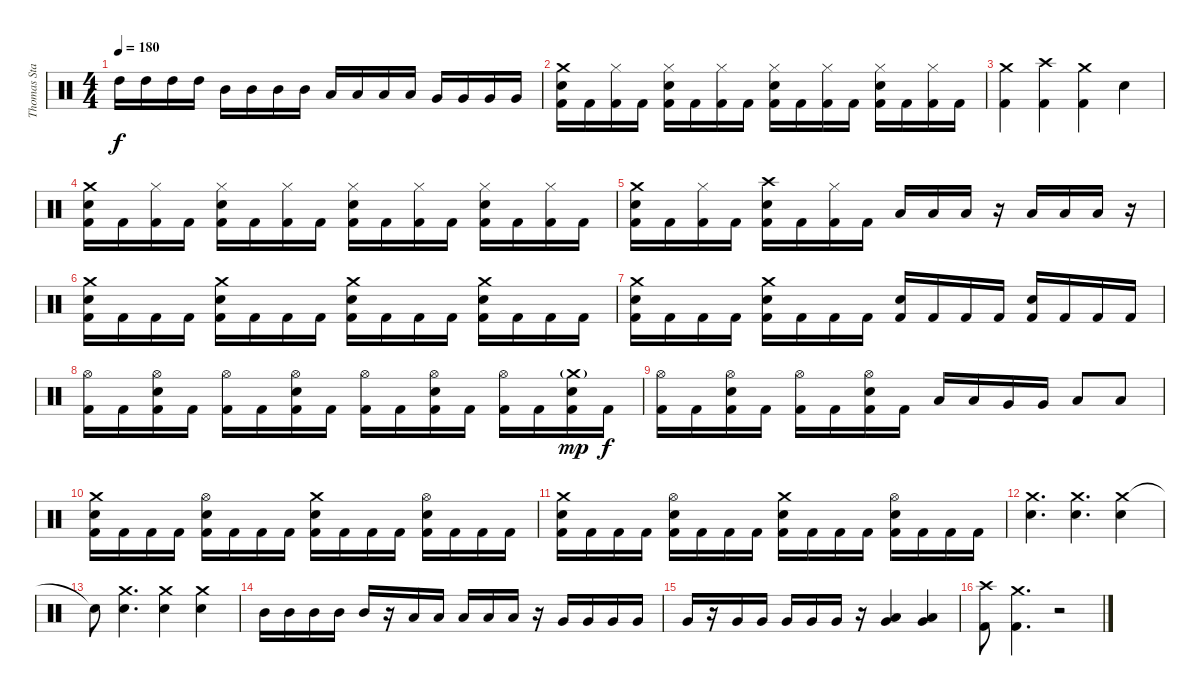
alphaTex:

\track ("Thomas Stauch" "Thomas Sta") {instrument percussion}
\staff {score}
\articulation defaults
\ts (4 4)
\tempo 180
\clef neutral
\ks c "High Tom (hit)".16{dy f} "High Tom (hit)".16 "High Tom (hit)".16 "High Tom (hit)".16 "Mid Tom (hit)".16 "Mid Tom (hit)".16 "Mid Tom (hit)".16 "Mid Tom (hit)".16 "Low Tom (hit)".16 "Low Tom (hit)".16 "Low Tom (hit)".16 "Low Tom (hit)".16 "Very Low Tom (hit)".16 "Very Low Tom (hit)".16 "Very Low Tom (hit)".16 "Very Low Tom (hit)".16
|
("Crash medium (hit)" "Electric Snare (hit)" "Kick (hit) 2").16 "Kick (hit) 2".16 ("Hi-Hat (closed)" "Kick (hit) 2").16 "Kick (hit) 2".16 ("Hi-Hat (closed)" "Electric Snare (hit)" "Kick (hit) 2").16 "Kick (hit) 2".16 ("Hi-Hat (closed)" "Kick (hit) 2").16 "Kick (hit) 2".16 ("Hi-Hat (closed)" "Electric Snare (hit)" "Kick (hit) 2").16 "Kick (hit) 2".16 ("Hi-Hat (closed)" "Kick (hit) 2").16 "Kick (hit) 2".16 ("Hi-Hat (closed)" "Electric Snare (hit)" "Kick (hit) 2").16 "Kick (hit) 2".16 ("Hi-Hat (closed)" "Kick (hit) 2").16 "Kick (hit) 2".16 |
("Crash medium (hit)" "Kick (hit) 2").4 ("Crash high (hit)" "Kick (hit) 2").4 ("Crash medium (hit)" "Kick (hit) 2").4 "Electric Snare (hit)".4 |
("Crash medium (hit)" "Electric Snare (hit)" "Kick (hit) 2").16 "Kick (hit) 2".16 ("Hi-Hat (closed)" "Kick (hit) 2").16 "Kick (hit) 2".16 ("Hi-Hat (closed)" "Electric Snare (hit)" "Kick (hit) 2").16 "Kick (hit) 2".16 ("Hi-Hat (closed)" "Kick (hit) 2").16 "Kick (hit) 2".16 ("Hi-Hat (closed)" "Electric Snare (hit)" "Kick (hit) 2").16 "Kick (hit) 2".16 ("Hi-Hat (closed)" "Kick (hit) 2").16 "Kick (hit) 2".16 ("Hi-Hat (closed)" "Electric Snare (hit)" "Kick (hit) 2").16 "Kick (hit) 2".16 ("Hi-Hat (closed)" "Kick (hit) 2").16 "Kick (hit) 2".16 |
("Crash medium (hit)" "Electric Snare (hit)" "Kick (hit) 2").16 "Kick (hit) 2".16 ("Hi-Hat (closed)" "Kick (hit) 2").16 "Kick (hit) 2".16 ("Crash high (hit)" "Electric Snare (hit)" "Kick (hit) 2").16 "Kick (hit) 2".16 ("Hi-Hat (closed)" "Kick (hit) 2").16 "Kick (hit) 2".16 "Low Tom (hit)".16 "Low Tom (hit)".16 "Low Tom (hit)".16 r.16 "Low Tom (hit)".16 "Low Tom (hit)".16 "Low Tom (hit)".16 r.16 |
("Crash medium (hit)" "Electric Snare (hit)" "Kick (hit) 2").16 "Kick (hit) 2".16 "Kick (hit) 2".16 "Kick (hit) 2".16 ("Crash medium (hit)" "Electric Snare (hit)" "Kick (hit) 2").16 "Kick (hit) 2".16 "Kick (hit) 2".16 "Kick (hit) 2".16 ("Crash medium (hit)" "Electric Snare (hit)" "Kick (hit) 2").16 "Kick (hit) 2".16 "Kick (hit) 2".16 "Kick (hit) 2".16 ("Crash medium (hit)" "Electric Snare (hit)" "Kick (hit) 2").16 "Kick (hit) 2".16 "Kick (hit) 2".16 "Kick (hit) 2".16 |
("Crash medium (hit)" "Electric Snare (hit)" "Kick (hit) 2").16 "Kick (hit) 2".16 "Kick (hit) 2".16 "Kick (hit) 2".16 ("Crash medium (hit)" "Electric Snare (hit)" "Kick (hit) 2").16 "Kick (hit) 2".16 "Kick (hit) 2".16 "Kick (hit) 2".16 ("Electric Snare (hit)" "Kick (hit) 2").16 "Kick (hit) 2".16 "Kick (hit) 2".16 "Kick (hit) 2".16 ("Electric Snare (hit)" "Kick (hit) 2").16 "Kick (hit) 2".16 "Kick (hit) 2".16 "Kick (hit) 2".16 |
("Hi-Hat (open)" "Kick (hit) 2").16 "Kick (hit) 2".16 ("Hi-Hat (open)" "Electric Snare (hit)" "Kick (hit) 2").16 "Kick (hit) 2".16 ("Hi-Hat (open)" "Kick (hit) 2").16 "Kick (hit) 2".16 ("Hi-Hat (open)" "Electric Snare (hit)" "Kick (hit) 2").16 "Kick (hit) 2".16 ("Hi-Hat (open)" "Kick (hit) 2").16 "Kick (hit) 2".16 ("Hi-Hat (open)" "Electric Snare (hit)" "Kick (hit) 2").16 "Kick (hit) 2".16 ("Hi-Hat (open)" "Kick (hit) 2").16 "Kick (hit) 2".16 ("Crash medium (hit)"{g} "Electric Snare (hit)" "Kick (hit) 2").16{dy mp} "Kick (hit) 2".16{dy f} |
("Hi-Hat (open)" "Kick (hit) 2").16 "Kick (hit) 2".16 ("Hi-Hat (open)" "Electric Snare (hit)" "Kick (hit) 2").16 "Kick (hit) 2".16 ("Hi-Hat (open)" "Kick (hit) 2").16 "Kick (hit) 2".16 ("Hi-Hat (open)" "Electric Snare (hit)" "Kick (hit) 2").16 "Kick (hit) 2".16 "Low Tom (hit)".16 "Low Tom (hit)".16 "Very Low Tom (hit)".16 "Very Low Tom (hit)".16 "Low Floor Tom (hit)".8 "Low Floor Tom (hit)".8 |
("Crash medium (hit)" "Electric Snare (hit)" "Kick (hit) 2").16 "Kick (hit) 2".16 "Kick (hit) 2".16 "Kick (hit) 2".16 ("Hi-Hat (open)" "Electric Snare (hit)" "Kick (hit) 2").16 "Kick (hit) 2".16 "Kick (hit) 2".16 "Kick (hit) 2".16 ("Crash medium (hit)" "Electric Snare (hit)" "Kick (hit) 2").16 "Kick (hit) 2".16 "Kick (hit) 2".16 "Kick (hit) 2".16 ("Hi-Hat (open)" "Electric Snare (hit)" "Kick (hit) 2").16 "Kick (hit) 2".16 "Kick (hit) 2".16 "Kick (hit) 2".16 |
("Crash medium (hit)" "Electric Snare (hit)" "Kick (hit) 2").16 "Kick (hit) 2".16 "Kick (hit) 2".16 "Kick (hit) 2".16 ("Hi-Hat (open)" "Electric Snare (hit)" "Kick (hit) 2").16 "Kick (hit) 2".16 "Kick (hit) 2".16 "Kick (hit) 2".16 ("Crash medium (hit)" "Electric Snare (hit)" "Kick (hit) 2").16 "Kick (hit) 2".16 "Kick (hit) 2".16 "Kick (hit) 2".16 ("Hi-Hat (open)" "Electric Snare (hit)" "Kick (hit) 2").16 "Kick (hit) 2".16 "Kick (hit) 2".16 "Kick (hit) 2".16 |
("Crash medium (hit)" "Electric Snare (hit)").4{d} ("Crash medium (hit)" "Electric Snare (hit)").4{d} ("Crash medium (hit)" "Electric Snare (hit)").4 |
"Snare (hit)"{t}.8 ("Crash medium (hit)" "Electric Snare (hit)").4{d} ("Crash medium (hit)" "Electric Snare (hit)").4 ("Crash medium (hit)" "Electric Snare (hit)").4 |
"Mid Tom (hit)".16 "Mid Tom (hit)".16 "Mid Tom (hit)".16 "Mid Tom (hit)".16 "Mid Tom (hit)".16 r.16 "Low Tom (hit)".16 "Low Tom (hit)".16 "Low Tom (hit)".16 "Low Tom (hit)".16 "Low Tom (hit)".16 r.16 "Very Low Tom (hit)".16 "Very Low Tom (hit)".16 "Very Low Tom (hit)".16 "Very Low Tom (hit)".16 |
"Very Low Tom (hit)".16 r.16 "Very Low Tom (hit)".16 "Very Low Tom (hit)".16 "Very Low Tom (hit)".16 "Very Low Tom (hit)".16 "Very Low Tom (hit)".16 r.16 ("Very Low Tom (hit)" "Low Floor Tom (hit)").4 ("Very Low Tom (hit)" "Low Floor Tom (hit)").4 |
("Crash high (hit)" "Kick (hit) 2").8 ("Crash medium (hit)" "Kick (hit) 2").4{d} r.2
